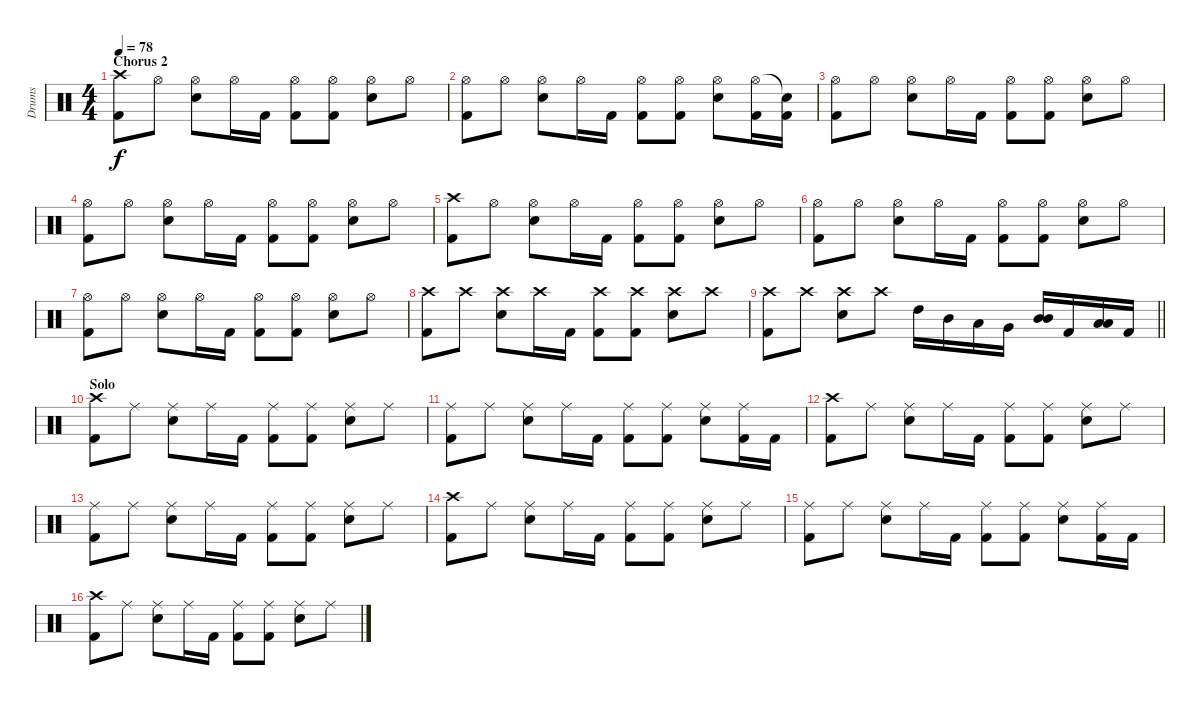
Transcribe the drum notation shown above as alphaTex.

\track ("Drums" "Drums") {instrument percussion}
\staff {score}
\articulation defaults
\ts (4 4)
\section ("" "Chorus 2")
\tempo 78
\clef neutral
\ks c
("Crash high (hit)" "Kick (hit) 2").8{dy f} "Hi-Hat (open)".8 ("Hi-Hat (open)" "Electric Snare (hit)").8 "Hi-Hat (open)".16 "Kick (hit) 2".16 ("Hi-Hat (open)" "Kick (hit) 2").8 ("Hi-Hat (open)" "Kick (hit) 2").8 ("Hi-Hat (open)" "Electric Snare (hit)").8 "Hi-Hat (open)".8 |
("Hi-Hat (open)" "Kick (hit) 2").8 "Hi-Hat (open)".8 ("Hi-Hat (open)" "Electric Snare (hit)").8 "Hi-Hat (open)".16 "Kick (hit) 2".16 ("Hi-Hat (open)" "Kick (hit) 2").8 ("Hi-Hat (open)" "Kick (hit) 2").8 ("Hi-Hat (open)" "Electric Snare (hit)").8 ("Hi-Hat (open)" "Kick (hit) 2").16 ("Snare (hit)"{t} "Kick (hit) 2").16 |
("Hi-Hat (open)" "Kick (hit) 2").8 "Hi-Hat (open)".8 ("Hi-Hat (open)" "Electric Snare (hit)").8 "Hi-Hat (open)".16 "Kick (hit) 2".16 ("Hi-Hat (open)" "Kick (hit) 2").8 ("Hi-Hat (open)" "Kick (hit) 2").8 ("Hi-Hat (open)" "Electric Snare (hit)").8 "Hi-Hat (open)".8 |
("Hi-Hat (open)" "Kick (hit) 2").8 "Hi-Hat (open)".8 ("Hi-Hat (open)" "Electric Snare (hit)").8 "Hi-Hat (open)".16 "Kick (hit) 2".16 ("Hi-Hat (open)" "Kick (hit) 2").8 ("Hi-Hat (open)" "Kick (hit) 2").8 ("Hi-Hat (open)" "Electric Snare (hit)").8 "Hi-Hat (open)".8 |
("Crash high (hit)" "Kick (hit) 2").8 "Hi-Hat (open)".8 ("Hi-Hat (open)" "Electric Snare (hit)").8 "Hi-Hat (open)".16 "Kick (hit) 2".16 ("Hi-Hat (open)" "Kick (hit) 2").8 ("Hi-Hat (open)" "Kick (hit) 2").8 ("Hi-Hat (open)" "Electric Snare (hit)").8 "Hi-Hat (open)".8 |
("Hi-Hat (open)" "Kick (hit) 2").8 "Hi-Hat (open)".8 ("Hi-Hat (open)" "Electric Snare (hit)").8 "Hi-Hat (open)".16 "Kick (hit) 2".16 ("Hi-Hat (open)" "Kick (hit) 2").8 ("Hi-Hat (open)" "Kick (hit) 2").8 ("Hi-Hat (open)" "Electric Snare (hit)").8 "Hi-Hat (open)".8 |
("Hi-Hat (open)" "Kick (hit) 2").8 "Hi-Hat (open)".8 ("Hi-Hat (open)" "Electric Snare (hit)").8 "Hi-Hat (open)".16 "Kick (hit) 2".16 ("Hi-Hat (open)" "Kick (hit) 2").8 ("Hi-Hat (open)" "Kick (hit) 2").8 ("Hi-Hat (open)" "Electric Snare (hit)").8 "Hi-Hat (open)".8 |
("Crash high (hit)" "Kick (hit) 2").8 "Crash high (hit)".8 ("Crash high (hit)" "Electric Snare (hit)").8 "Crash high (hit)".16 "Kick (hit) 2".16 ("Crash high (hit)" "Kick (hit) 2").8 ("Crash high (hit)" "Kick (hit) 2").8 ("Crash high (hit)" "Electric Snare (hit)").8 "Crash high (hit)".8 |
\barLineRight lightlight
("Crash high (hit)" "Kick (hit) 2").8 "Crash high (hit)".8 ("Crash high (hit)" "Electric Snare (hit)").8 "Crash high (hit)".8 "High Tom (hit)".16 "Mid Tom (hit)".16 "Low Tom (hit)".16 "Very Low Tom (hit)".16 ("Mid Tom (hit)" "Mid Tom (hit)").16{bd 120} "Kick (hit) 2".16 ("Low Tom (hit)" "Low Tom (hit)").16{bd 120} "Kick (hit) 2".16 |
\section ("" "Solo")
("Crash high (hit)" "Kick (hit) 2").8 "Ride (middle)".8 ("Ride (middle)" "Electric Snare (hit)").8 "Ride (middle)".16 "Kick (hit) 2".16 ("Ride (middle)" "Kick (hit) 2").8 ("Ride (middle)" "Kick (hit) 2").8 ("Ride (middle)" "Electric Snare (hit)").8 "Ride (middle)".8 |
("Ride (middle)" "Kick (hit) 2").8 "Ride (middle)".8 ("Ride (middle)" "Electric Snare (hit)").8 "Ride (middle)".16 "Kick (hit) 2".16 ("Ride (middle)" "Kick (hit) 2").8 ("Ride (middle)" "Kick (hit) 2").8 ("Ride (middle)" "Electric Snare (hit)").8 ("Ride (middle)" "Kick (hit) 2").16 "Kick (hit) 2".16 |
("Crash high (hit)" "Kick (hit) 2").8 "Ride (middle)".8 ("Ride (middle)" "Electric Snare (hit)").8 "Ride (middle)".16 "Kick (hit) 2".16 ("Ride (middle)" "Kick (hit) 2").8 ("Ride (middle)" "Kick (hit) 2").8 ("Ride (middle)" "Electric Snare (hit)").8 "Ride (middle)".8 |
("Ride (middle)" "Kick (hit) 2").8 "Ride (middle)".8 ("Ride (middle)" "Electric Snare (hit)").8 "Ride (middle)".16 "Kick (hit) 2".16 ("Ride (middle)" "Kick (hit) 2").8 ("Ride (middle)" "Kick (hit) 2").8 ("Ride (middle)" "Electric Snare (hit)").8 "Ride (middle)".8 |
("Crash high (hit)" "Kick (hit) 2").8 "Ride (middle)".8 ("Ride (middle)" "Electric Snare (hit)").8 "Ride (middle)".16 "Kick (hit) 2".16 ("Ride (middle)" "Kick (hit) 2").8 ("Ride (middle)" "Kick (hit) 2").8 ("Ride (middle)" "Electric Snare (hit)").8 "Ride (middle)".8 |
("Ride (middle)" "Kick (hit) 2").8 "Ride (middle)".8 ("Ride (middle)" "Electric Snare (hit)").8 "Ride (middle)".16 "Kick (hit) 2".16 ("Ride (middle)" "Kick (hit) 2").8 ("Ride (middle)" "Kick (hit) 2").8 ("Ride (middle)" "Electric Snare (hit)").8 ("Ride (middle)" "Kick (hit) 2").16 "Kick (hit) 2".16 |
("Crash high (hit)" "Kick (hit) 2").8 "Ride (middle)".8 ("Ride (middle)" "Electric Snare (hit)").8 "Ride (middle)".16 "Kick (hit) 2".16 ("Ride (middle)" "Kick (hit) 2").8 ("Ride (middle)" "Kick (hit) 2").8 ("Ride (middle)" "Electric Snare (hit)").8 "Ride (middle)".8
